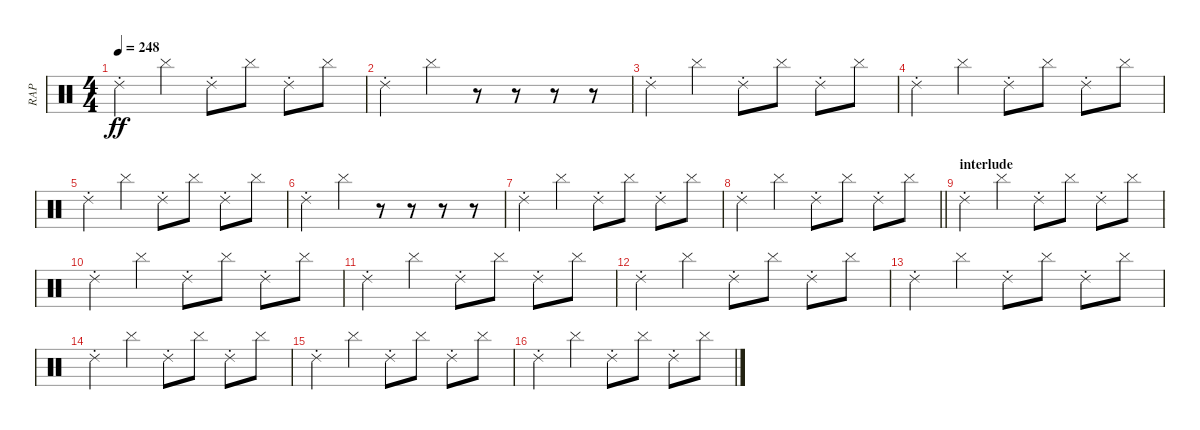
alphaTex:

\track ("RAP" "RAP") {instrument percussion}
\staff {score}
\articulation defaults
\ts (4 4)
\tempo 248
\clef neutral
\ks c "Ride (choke) 2".4{dy ff} "Cymbal (hit)".4 "Ride (choke) 2".8 "Cymbal (hit)".8 "Ride (choke) 2".8 "Cymbal (hit)".8
|
"Ride (choke) 2".4 "Cymbal (hit)".4 r.8 r.8 r.8 r.8 |
"Ride (choke) 2".4 "Cymbal (hit)".4 "Ride (choke) 2".8 "Cymbal (hit)".8 "Ride (choke) 2".8 "Cymbal (hit)".8 |
"Ride (choke) 2".4 "Cymbal (hit)".4 "Ride (choke) 2".8 "Cymbal (hit)".8 "Ride (choke) 2".8 "Cymbal (hit)".8 |
"Ride (choke) 2".4 "Cymbal (hit)".4 "Ride (choke) 2".8 "Cymbal (hit)".8 "Ride (choke) 2".8 "Cymbal (hit)".8 |
"Ride (choke) 2".4 "Cymbal (hit)".4 r.8 r.8 r.8 r.8 |
"Ride (choke) 2".4 "Cymbal (hit)".4 "Ride (choke) 2".8 "Cymbal (hit)".8 "Ride (choke) 2".8 "Cymbal (hit)".8 |
\barLineRight lightlight "Ride (choke) 2".4 "Cymbal (hit)".4 "Ride (choke) 2".8 "Cymbal (hit)".8 "Ride (choke) 2".8 "Cymbal (hit)".8
|
\section ("" "interlude")
"Ride (choke) 2".4 "Cymbal (hit)".4 "Ride (choke) 2".8 "Cymbal (hit)".8 "Ride (choke) 2".8 "Cymbal (hit)".8 |
"Ride (choke) 2".4 "Cymbal (hit)".4 "Ride (choke) 2".8 "Cymbal (hit)".8 "Ride (choke) 2".8 "Cymbal (hit)".8 |
"Ride (choke) 2".4 "Cymbal (hit)".4 "Ride (choke) 2".8 "Cymbal (hit)".8 "Ride (choke) 2".8 "Cymbal (hit)".8 |
"Ride (choke) 2".4 "Cymbal (hit)".4 "Ride (choke) 2".8 "Cymbal (hit)".8 "Ride (choke) 2".8 "Cymbal (hit)".8 |
"Ride (choke) 2".4 "Cymbal (hit)".4 "Ride (choke) 2".8 "Cymbal (hit)".8 "Ride (choke) 2".8 "Cymbal (hit)".8 |
"Ride (choke) 2".4 "Cymbal (hit)".4 "Ride (choke) 2".8 "Cymbal (hit)".8 "Ride (choke) 2".8 "Cymbal (hit)".8 |
"Ride (choke) 2".4 "Cymbal (hit)".4 "Ride (choke) 2".8 "Cymbal (hit)".8 "Ride (choke) 2".8 "Cymbal (hit)".8 |
"Ride (choke) 2".4 "Cymbal (hit)".4 "Ride (choke) 2".8 "Cymbal (hit)".8 "Ride (choke) 2".8 "Cymbal (hit)".8
